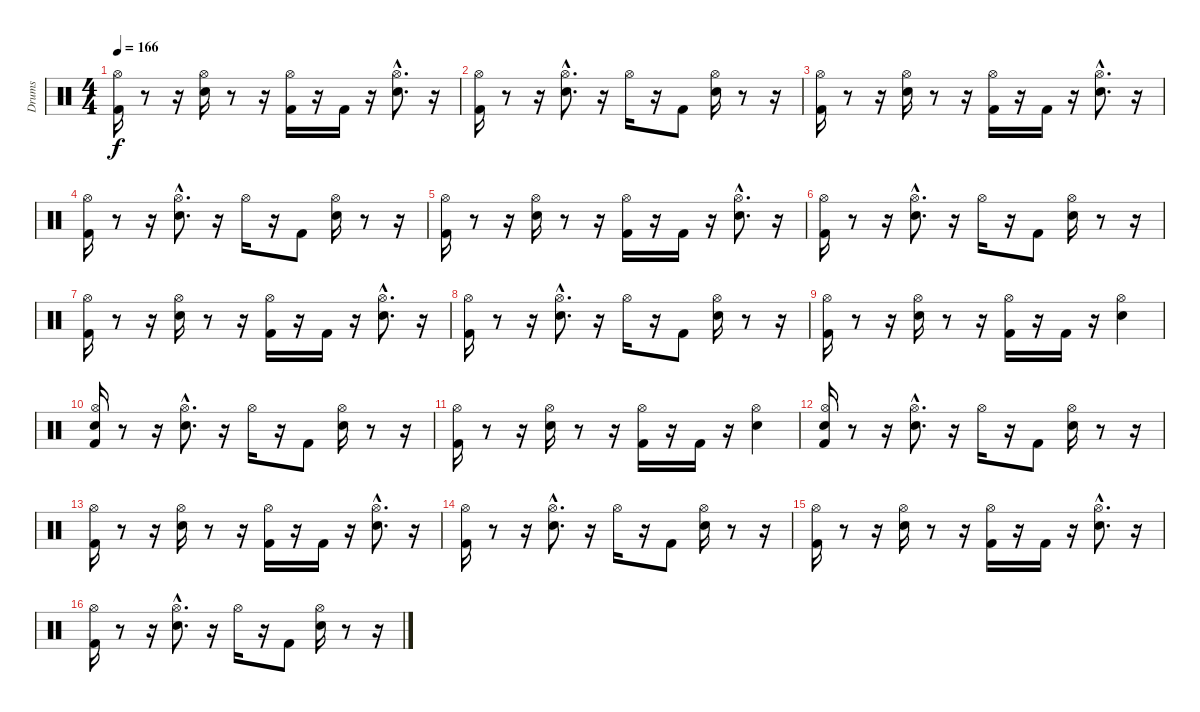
\track ("Drums" "Drums") {instrument percussion}
\staff {score}
\articulation defaults
\ts (4 4)
\tempo 166
\clef neutral
\ks c
("Kick (hit) 2" "Hi-Hat (open)").16{dy f} r.8 r.16 ("Snare (hit) 2" "Hi-Hat (open)").16 r.8 r.16 ("Kick (hit) 2" "Hi-Hat (open)").16 r.16 "Kick (hit) 2".16 r.16 ("Snare (hit) 2"{hac} "Hi-Hat (open)"{hac}).8{d} r.16 |
("Kick (hit) 2" "Hi-Hat (open)").16 r.8 r.16 ("Hi-Hat (open)"{hac} "Snare (hit) 2"{hac}).8{d} r.16 "Hi-Hat (open)".16 r.16 "Kick (hit) 2".8 ("Snare (hit) 2" "Hi-Hat (open)").16 r.8 r.16 |
("Kick (hit) 2" "Hi-Hat (open)").16 r.8 r.16 ("Snare (hit) 2" "Hi-Hat (open)").16 r.8 r.16 ("Kick (hit) 2" "Hi-Hat (open)").16 r.16 "Kick (hit) 2".16 r.16 ("Snare (hit) 2"{hac} "Hi-Hat (open)"{hac}).8{d} r.16 |
("Kick (hit) 2" "Hi-Hat (open)").16 r.8 r.16 ("Hi-Hat (open)"{hac} "Snare (hit) 2"{hac}).8{d} r.16 "Hi-Hat (open)".16 r.16 "Kick (hit) 2".8 ("Snare (hit) 2" "Hi-Hat (open)").16 r.8 r.16 |
("Kick (hit) 2" "Hi-Hat (open)").16 r.8 r.16 ("Snare (hit) 2" "Hi-Hat (open)").16 r.8 r.16 ("Kick (hit) 2" "Hi-Hat (open)").16 r.16 "Kick (hit) 2".16 r.16 ("Snare (hit) 2"{hac} "Hi-Hat (open)"{hac}).8{d} r.16 |
("Kick (hit) 2" "Hi-Hat (open)").16 r.8 r.16 ("Hi-Hat (open)"{hac} "Snare (hit) 2"{hac}).8{d} r.16 "Hi-Hat (open)".16 r.16 "Kick (hit) 2".8 ("Snare (hit) 2" "Hi-Hat (open)").16 r.8 r.16 |
("Kick (hit) 2" "Hi-Hat (open)").16 r.8 r.16 ("Snare (hit) 2" "Hi-Hat (open)").16 r.8 r.16 ("Kick (hit) 2" "Hi-Hat (open)").16 r.16 "Kick (hit) 2".16 r.16 ("Snare (hit) 2"{hac} "Hi-Hat (open)"{hac}).8{d} r.16 |
("Kick (hit) 2" "Hi-Hat (open)").16 r.8 r.16 ("Hi-Hat (open)"{hac} "Snare (hit) 2"{hac}).8{d} r.16 "Hi-Hat (open)".16 r.16 "Kick (hit) 2".8 ("Snare (hit) 2" "Hi-Hat (open)").16 r.8 r.16 |
("Kick (hit) 2" "Hi-Hat (open)").16 r.8 r.16 ("Snare (hit) 2" "Hi-Hat (open)").16 r.8 r.16 ("Kick (hit) 2" "Hi-Hat (open)").16 r.16 "Kick (hit) 2".16 r.16 ("Snare (hit) 2" "Hi-Hat (open)").4 |
("Snare (hit)" "Kick (hit) 2" "Hi-Hat (open)").16 r.8 r.16 ("Hi-Hat (open)"{hac} "Snare (hit) 2"{hac}).8{d} r.16 "Hi-Hat (open)".16 r.16 "Kick (hit) 2".8 ("Snare (hit) 2" "Hi-Hat (open)").16 r.8 r.16 |
("Kick (hit) 2" "Hi-Hat (open)").16 r.8 r.16 ("Snare (hit) 2" "Hi-Hat (open)").16 r.8 r.16 ("Kick (hit) 2" "Hi-Hat (open)").16 r.16 "Kick (hit) 2".16 r.16 ("Snare (hit) 2" "Hi-Hat (open)").4 |
("Snare (hit)" "Kick (hit) 2" "Hi-Hat (open)").16 r.8 r.16 ("Hi-Hat (open)"{hac} "Snare (hit) 2"{hac}).8{d} r.16 "Hi-Hat (open)".16 r.16 "Kick (hit) 2".8 ("Snare (hit) 2" "Hi-Hat (open)").16 r.8 r.16 |
("Kick (hit) 2" "Hi-Hat (open)").16 r.8 r.16 ("Snare (hit) 2" "Hi-Hat (open)").16 r.8 r.16 ("Kick (hit) 2" "Hi-Hat (open)").16 r.16 "Kick (hit) 2".16 r.16 ("Snare (hit) 2"{hac} "Hi-Hat (open)"{hac}).8{d} r.16 |
("Kick (hit) 2" "Hi-Hat (open)").16 r.8 r.16 ("Hi-Hat (open)"{hac} "Snare (hit) 2"{hac}).8{d} r.16 "Hi-Hat (open)".16 r.16 "Kick (hit) 2".8 ("Snare (hit) 2" "Hi-Hat (open)").16 r.8 r.16 |
("Kick (hit) 2" "Hi-Hat (open)").16 r.8 r.16 ("Snare (hit) 2" "Hi-Hat (open)").16 r.8 r.16 ("Kick (hit) 2" "Hi-Hat (open)").16 r.16 "Kick (hit) 2".16 r.16 ("Snare (hit) 2"{hac} "Hi-Hat (open)"{hac}).8{d} r.16 |
("Kick (hit) 2" "Hi-Hat (open)").16 r.8 r.16 ("Hi-Hat (open)"{hac} "Snare (hit) 2"{hac}).8{d} r.16 "Hi-Hat (open)".16 r.16 "Kick (hit) 2".8 ("Snare (hit) 2" "Hi-Hat (open)").16 r.8 r.16
